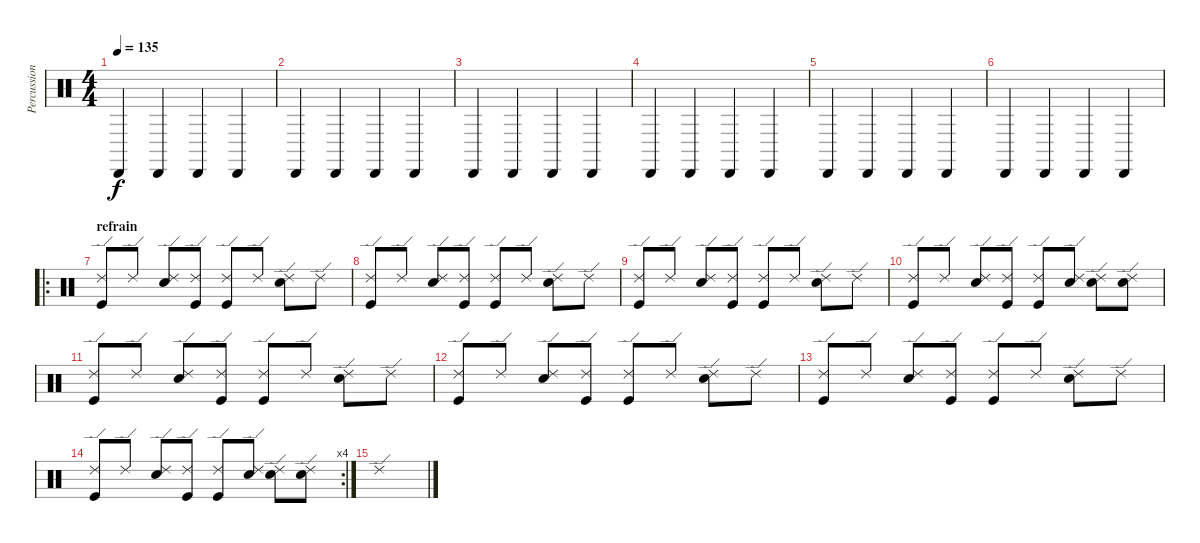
\track ("Percussions" "Percussion") {instrument percussion}
\staff {score}
\articulation defaults
\ts (4 4)
\tempo 135
\clef neutral
\ks c "Cabasa (hit)".4{dy f} "Cabasa (hit)".4 "Cabasa (hit)".4 "Cabasa (hit)".4
|
"Cabasa (hit)".4 "Cabasa (hit)".4 "Cabasa (hit)".4 "Cabasa (hit)".4 |
"Cabasa (hit)".4 "Cabasa (hit)".4 "Cabasa (hit)".4 "Cabasa (hit)".4 |
"Cabasa (hit)".4 "Cabasa (hit)".4 "Cabasa (hit)".4 "Cabasa (hit)".4 |
"Cabasa (hit)".4 "Cabasa (hit)".4 "Cabasa (hit)".4 "Cabasa (hit)".4 |
"Cabasa (hit)".4 "Cabasa (hit)".4 "Cabasa (hit)".4 "Cabasa (hit)".4 |
\ro
\section ("" "refrain")
("Kick (hit)" "Ride (edge) 2").8 "Ride (edge) 2".8 ("Snare (hit) 2" "Ride (edge) 2").8 ("Kick (hit)" "Ride (edge) 2").8 ("Kick (hit)" "Ride (edge) 2").8 "Ride (edge) 2".8 ("Snare (hit) 2" "Ride (edge) 2").8 "Ride (edge) 2".8 |
("Kick (hit)" "Ride (edge) 2").8 "Ride (edge) 2".8 ("Snare (hit) 2" "Ride (edge) 2").8 ("Kick (hit)" "Ride (edge) 2").8 ("Kick (hit)" "Ride (edge) 2").8 "Ride (edge) 2".8 ("Snare (hit) 2" "Ride (edge) 2").8 "Ride (edge) 2".8 |
("Kick (hit)" "Ride (edge) 2").8 "Ride (edge) 2".8 ("Snare (hit) 2" "Ride (edge) 2").8 ("Kick (hit)" "Ride (edge) 2").8 ("Kick (hit)" "Ride (edge) 2").8 "Ride (edge) 2".8 ("Snare (hit) 2" "Ride (edge) 2").8 "Ride (edge) 2".8 |
("Kick (hit)" "Ride (edge) 2").8 "Ride (edge) 2".8 ("Snare (hit) 2" "Ride (edge) 2").8 ("Kick (hit)" "Ride (edge) 2").8 ("Kick (hit)" "Ride (edge) 2").8 ("Snare (hit) 2" "Ride (edge) 2").8 ("Snare (hit) 2" "Ride (edge) 2").8 ("Snare (hit) 2" "Ride (edge) 2").8 |
("Kick (hit)" "Ride (edge) 2").8 "Ride (edge) 2".8 ("Snare (hit) 2" "Ride (edge) 2").8 ("Kick (hit)" "Ride (edge) 2").8 ("Kick (hit)" "Ride (edge) 2").8 "Ride (edge) 2".8 ("Snare (hit) 2" "Ride (edge) 2").8 "Ride (edge) 2".8 |
("Kick (hit)" "Ride (edge) 2").8 "Ride (edge) 2".8 ("Snare (hit) 2" "Ride (edge) 2").8 ("Kick (hit)" "Ride (edge) 2").8 ("Kick (hit)" "Ride (edge) 2").8 "Ride (edge) 2".8 ("Snare (hit) 2" "Ride (edge) 2").8 "Ride (edge) 2".8 |
("Kick (hit)" "Ride (edge) 2").8 "Ride (edge) 2".8 ("Snare (hit) 2" "Ride (edge) 2").8 ("Kick (hit)" "Ride (edge) 2").8 ("Kick (hit)" "Ride (edge) 2").8 "Ride (edge) 2".8 ("Snare (hit) 2" "Ride (edge) 2").8 "Ride (edge) 2".8 |
\rc 4
("Kick (hit)" "Ride (edge) 2").8 "Ride (edge) 2".8 ("Snare (hit) 2" "Ride (edge) 2").8 ("Kick (hit)" "Ride (edge) 2").8 ("Kick (hit)" "Ride (edge) 2").8 ("Snare (hit) 2" "Ride (edge) 2").8 ("Snare (hit) 2" "Ride (edge) 2").8 ("Snare (hit) 2" "Ride (edge) 2").8 |
"Ride (edge) 2".1
